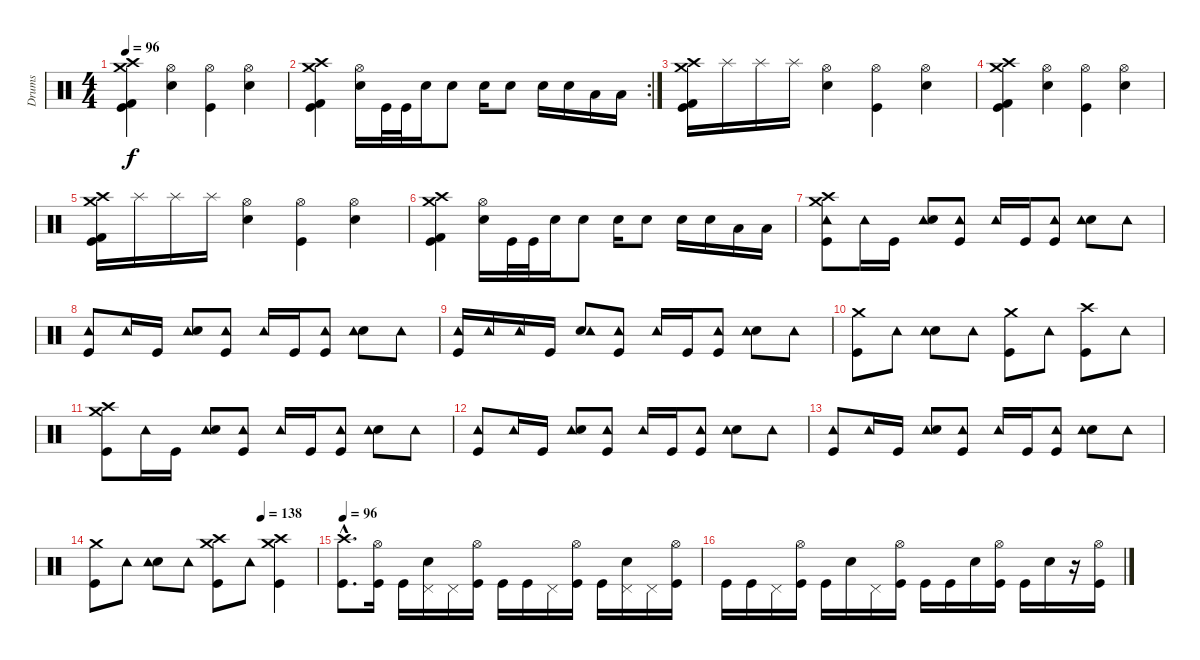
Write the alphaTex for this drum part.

\track ("Drums" "Drums") {instrument percussion}
\staff {score}
\articulation defaults
\ts (4 4)
\tempo 96
\clef neutral
\ks c
("Crash medium (hit)" "Crash high (hit)" "Kick (hit)" "Kick (hit) 2").4{dy f} ("Hi-Hat (open)" "Electric Snare (hit)").4 ("Kick (hit)" "Hi-Hat (open)").4 ("Electric Snare (hit)" "Hi-Hat (open)").4 |
\rc 2
("Crash medium (hit)" "Crash high (hit)" "Kick (hit)" "Kick (hit) 2").4 ("Hi-Hat (open)" "Electric Snare (hit)").16 "Kick (hit)".32 "Kick (hit)".32 "Electric Snare (hit)".16 "Electric Snare (hit)".8 "Electric Snare (hit)".16 "Electric Snare (hit)".8 "Electric Snare (hit)".16 "Electric Snare (hit)".16 "Low Tom (hit)".16 "Low Tom (hit)".16 |
("Crash medium (hit)" "Crash high (hit)" "Kick (hit)" "Kick (hit) 2").16 "Splash (hit)".16 "Splash (hit)".16 "Splash (hit)".16 ("Hi-Hat (open)" "Electric Snare (hit)").4 ("Kick (hit)" "Hi-Hat (open)").4 ("Hi-Hat (open)" "Electric Snare (hit)").4 |
("Crash medium (hit)" "Crash high (hit)" "Kick (hit)" "Kick (hit) 2").4 ("Hi-Hat (open)" "Electric Snare (hit)").4 ("Kick (hit)" "Hi-Hat (open)").4 ("Electric Snare (hit)" "Hi-Hat (open)").4 |
("Crash medium (hit)" "Crash high (hit)" "Kick (hit)" "Kick (hit) 2").16 "Splash (hit)".16 "Splash (hit)".16 "Splash (hit)".16 ("Hi-Hat (open)" "Electric Snare (hit)").4 ("Kick (hit)" "Hi-Hat (open)").4 ("Hi-Hat (open)" "Electric Snare (hit)").4 |
("Crash medium (hit)" "Crash high (hit)" "Kick (hit)" "Kick (hit) 2").4 ("Hi-Hat (open)" "Electric Snare (hit)").16 "Kick (hit)".32 "Kick (hit)".32 "Electric Snare (hit)".16 "Electric Snare (hit)".8 "Electric Snare (hit)".16 "Electric Snare (hit)".8 "Electric Snare (hit)".16 "Electric Snare (hit)".16 "Low Tom (hit)".16 "Low Tom (hit)".16 |
("Crash high (hit)" "Tambourine (hit)" "Crash medium (hit)" "Kick (hit)").8 "Tambourine (hit)".16 "Kick (hit)".16 ("Tambourine (hit)" "Electric Snare (hit)").8 ("Tambourine (hit)" "Kick (hit)").8 "Tambourine (hit)".16 "Kick (hit)".16 ("Tambourine (hit)" "Kick (hit)").8 ("Electric Snare (hit)" "Tambourine (hit)").8 "Tambourine (hit)".8 |
("Tambourine (hit)" "Kick (hit)").8 "Tambourine (hit)".16 "Kick (hit)".16 ("Tambourine (hit)" "Electric Snare (hit)").8 ("Tambourine (hit)" "Kick (hit)").8 "Tambourine (hit)".16 "Kick (hit)".16 ("Tambourine (hit)" "Kick (hit)").8 ("Electric Snare (hit)" "Tambourine (hit)").8 "Tambourine (hit)".8 |
("Tambourine (hit)" "Kick (hit)").16 "Tambourine (hit)".16 "Tambourine (hit)".16 "Kick (hit)".16 ("Electric Snare (hit)" "Tambourine (hit)").8 ("Tambourine (hit)" "Kick (hit)").8 "Tambourine (hit)".16 "Kick (hit)".16 ("Tambourine (hit)" "Kick (hit)").8 ("Electric Snare (hit)" "Tambourine (hit)").8 "Tambourine (hit)".8 |
("Crash medium (hit)" "Kick (hit)").8 "Tambourine (hit)".8 ("Electric Snare (hit)" "Tambourine (hit)").8 "Tambourine (hit)".8 ("Crash medium (hit)" "Kick (hit)").8 "Tambourine (hit)".8 ("Crash high (hit)" "Kick (hit)").8 "Tambourine (hit)".8 |
("Crash medium (hit)" "Crash high (hit)" "Kick (hit)").8 "Tambourine (hit)".16 "Kick (hit)".16 ("Tambourine (hit)" "Electric Snare (hit)").8 ("Tambourine (hit)" "Kick (hit)").8 "Tambourine (hit)".16 "Kick (hit)".16 ("Tambourine (hit)" "Kick (hit)").8 ("Electric Snare (hit)" "Tambourine (hit)").8 "Tambourine (hit)".8 |
("Tambourine (hit)" "Kick (hit)").8 "Tambourine (hit)".16 "Kick (hit)".16 ("Tambourine (hit)" "Electric Snare (hit)").8 ("Tambourine (hit)" "Kick (hit)").8 "Tambourine (hit)".16 "Kick (hit)".16 ("Tambourine (hit)" "Kick (hit)").8 ("Electric Snare (hit)" "Tambourine (hit)").8 "Tambourine (hit)".8 |
("Tambourine (hit)" "Kick (hit)").8 "Tambourine (hit)".16 "Kick (hit)".16 ("Tambourine (hit)" "Electric Snare (hit)").8 ("Tambourine (hit)" "Kick (hit)").8 "Tambourine (hit)".16 "Kick (hit)".16 ("Tambourine (hit)" "Kick (hit)").8 ("Electric Snare (hit)" "Tambourine (hit)").8 "Tambourine (hit)".8 |
\tempo (138 0.75)
("Crash medium (hit)" "Kick (hit)").8 "Tambourine (hit)".8 ("Electric Snare (hit)" "Tambourine (hit)").8 "Tambourine (hit)".8 ("Crash high (hit)" "Crash medium (hit)" "Kick (hit)").8 "Tambourine (hit)".8 ("Crash medium (hit)" "Crash high (hit)" "Kick (hit)").4 |
\tempo 96
("Crash high (hit)"{hac} "Kick (hit)"{hac}).8{d} ("Hi-Hat (open)" "Kick (hit)").16 "Kick (hit)".16 ("Pedal Hi-Hat (hit)" "Electric Snare (hit)").16 "Pedal Hi-Hat (hit)".16 ("Hi-Hat (open)" "Kick (hit)").16 "Kick (hit)".16 "Kick (hit)".16 "Pedal Hi-Hat (hit)".16 ("Hi-Hat (open)" "Kick (hit)").16 "Kick (hit)".16 ("Pedal Hi-Hat (hit)" "Electric Snare (hit)").16 "Pedal Hi-Hat (hit)".16 ("Hi-Hat (open)" "Kick (hit)").16 |
"Kick (hit)".16 "Kick (hit)".16 "Pedal Hi-Hat (hit)".16 ("Hi-Hat (open)" "Kick (hit)").16 "Kick (hit)".16 "Electric Snare (hit)".16 "Pedal Hi-Hat (hit)".16 ("Hi-Hat (open)" "Kick (hit)").16 "Kick (hit)".16 "Kick (hit)".16 "Electric Snare (hit)".16 ("Hi-Hat (open)" "Kick (hit)").16 "Kick (hit)".16 "Electric Snare (hit)".16 r.16 ("Hi-Hat (open)" "Kick (hit)").16
